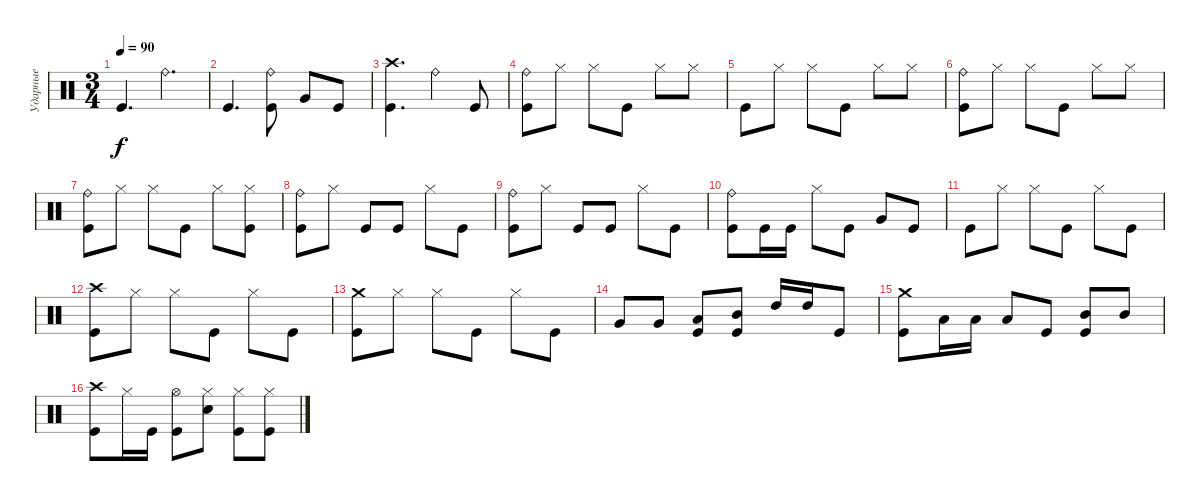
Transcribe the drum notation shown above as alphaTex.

\track ("Ударные" "Ударные") {instrument percussion}
\staff {score}
\articulation defaults
\ts (3 4)
\tempo 90
\clef neutral
\ks c "Kick (hit)".4{d dy f} "Ride (bell)".4{d}
|
"Kick (hit)".4{d} ("Ride (bell)" "Kick (hit)").8 "Very Low Tom (hit)".8 "Kick (hit)".8 |
("Crash high (hit)" "Kick (hit)").4{d} "Ride (bell)".4 "Kick (hit)".8 |
("Ride (bell)" "Kick (hit)").8 "Hi-Hat (closed)".8 "Hi-Hat (closed)".8 "Kick (hit)".8 "Hi-Hat (closed)".8 "Hi-Hat (closed)".8 |
"Kick (hit)".8 "Hi-Hat (closed)".8 "Hi-Hat (closed)".8 "Kick (hit)".8 "Hi-Hat (closed)".8 "Hi-Hat (closed)".8 |
("Ride (bell)" "Kick (hit)").8 "Hi-Hat (closed)".8 "Hi-Hat (closed)".8 "Kick (hit)".8 "Hi-Hat (closed)".8 "Hi-Hat (closed)".8 |
("Ride (bell)" "Kick (hit)").8 "Hi-Hat (closed)".8 "Hi-Hat (closed)".8 "Kick (hit)".8 "Hi-Hat (closed)".8 ("Kick (hit)" "Hi-Hat (closed)").8 |
("Ride (bell)" "Kick (hit)").8 "Hi-Hat (closed)".8 "Kick (hit)".8 "Kick (hit)".8 "Hi-Hat (closed)".8 "Kick (hit)".8 |
("Ride (bell)" "Kick (hit)").8 "Hi-Hat (closed)".8 "Kick (hit)".8 "Kick (hit)".8 "Hi-Hat (closed)".8 "Kick (hit)".8 |
("Ride (bell)" "Kick (hit)").8 "Kick (hit)".16 "Kick (hit)".16 "Hi-Hat (closed)".8 "Kick (hit)".8 "Very Low Tom (hit)".8 "Kick (hit)".8 |
"Kick (hit)".8 "Hi-Hat (closed)".8 "Hi-Hat (closed)".8 "Kick (hit)".8 "Hi-Hat (closed)".8 "Kick (hit)".8 |
("Crash high (hit)" "Kick (hit)").8 "Hi-Hat (closed)".8 "Hi-Hat (closed)".8 "Kick (hit)".8 "Hi-Hat (closed)".8 "Kick (hit)".8 |
("Crash medium (hit)" "Kick (hit)").8 "Hi-Hat (closed)".8 "Hi-Hat (closed)".8 "Kick (hit)".8 "Hi-Hat (closed)".8 "Kick (hit)".8 |
"Very Low Tom (hit)".8 "Very Low Tom (hit)".8 ("Low Tom (hit)" "Kick (hit)").8 ("Mid Tom (hit)" "Kick (hit)").8 "High Tom (hit)".16 "High Tom (hit)".16 "Kick (hit)".8 |
("Crash medium (hit)" "Kick (hit)").8 "Low Tom (hit)".16 "Low Tom (hit)".16 "Low Tom (hit)".8 "Kick (hit)".8 ("Mid Tom (hit)" "Kick (hit)").8 "Mid Tom (hit)".8 |
("Crash high (hit)" "Kick (hit)").8 "Hi-Hat (closed)".16 "Kick (hit)".16 ("Hi-Hat (open)" "Kick (hit)").8 ("Hi-Hat (closed)" "Electric Snare (hit)").8 ("Hi-Hat (closed)" "Kick (hit)").8 ("Hi-Hat (closed)" "Kick (hit)").8
